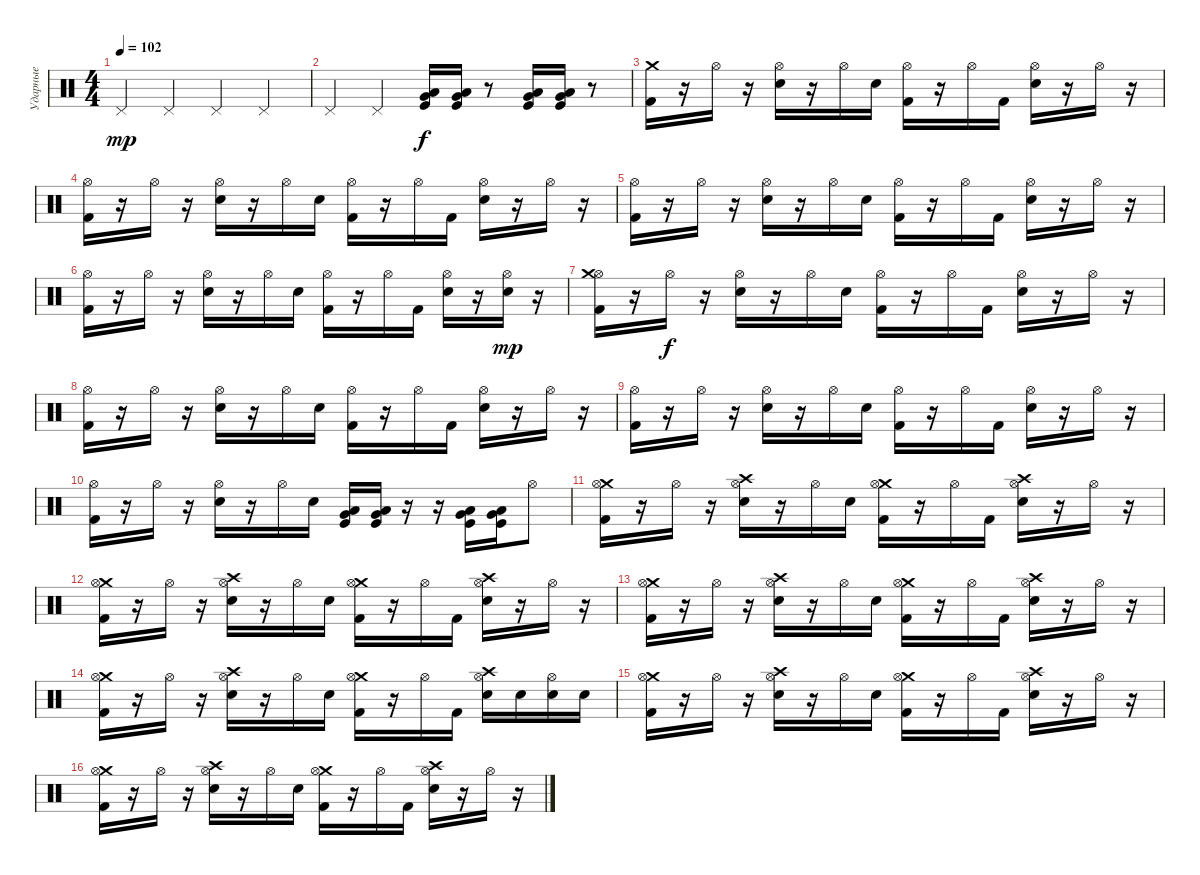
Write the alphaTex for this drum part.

\track ("Ударные" "Ударные") {instrument percussion}
\staff {score}
\articulation defaults
\ts (4 4)
\tempo 102
\clef neutral
\ks c "Pedal Hi-Hat (hit)".4{dy mp} "Pedal Hi-Hat (hit)".4 "Pedal Hi-Hat (hit)".4 "Pedal Hi-Hat (hit)".4
|
"Pedal Hi-Hat (hit)".4 "Pedal Hi-Hat (hit)".4 ("Low Floor Tom (hit)" "Very Low Tom (hit)" "Kick (hit)").16{dy f} ("Low Floor Tom (hit)" "Very Low Tom (hit)" "Kick (hit)").16 r.8 ("Low Floor Tom (hit)" "Very Low Tom (hit)" "Kick (hit)").16 ("Low Floor Tom (hit)" "Very Low Tom (hit)" "Kick (hit)").16 r.8 |
("Crash medium (hit)" "Kick (hit) 2").16 r.16 "Hi-Hat (open)".16 r.16 ("Hi-Hat (open)" "Electric Snare (hit)").16 r.16 "Hi-Hat (open)".16 "Electric Snare (hit)".16 ("Hi-Hat (open)" "Kick (hit) 2").16 r.16 "Hi-Hat (open)".16 "Kick (hit) 2".16 ("Hi-Hat (open)" "Electric Snare (hit)").16 r.16 "Hi-Hat (open)".16 r.16 |
("Hi-Hat (open)" "Kick (hit) 2").16 r.16 "Hi-Hat (open)".16 r.16 ("Hi-Hat (open)" "Electric Snare (hit)").16 r.16 "Hi-Hat (open)".16 "Electric Snare (hit)".16 ("Hi-Hat (open)" "Kick (hit) 2").16 r.16 "Hi-Hat (open)".16 "Kick (hit) 2".16 ("Hi-Hat (open)" "Electric Snare (hit)").16 r.16 "Hi-Hat (open)".16 r.16 |
("Hi-Hat (open)" "Kick (hit) 2").16 r.16 "Hi-Hat (open)".16 r.16 ("Hi-Hat (open)" "Electric Snare (hit)").16 r.16 "Hi-Hat (open)".16 "Electric Snare (hit)".16 ("Hi-Hat (open)" "Kick (hit) 2").16 r.16 "Hi-Hat (open)".16 "Kick (hit) 2".16 ("Hi-Hat (open)" "Electric Snare (hit)").16 r.16 "Hi-Hat (open)".16 r.16 |
("Hi-Hat (open)" "Kick (hit) 2").16 r.16 "Hi-Hat (open)".16 r.16 ("Hi-Hat (open)" "Electric Snare (hit)").16 r.16 "Hi-Hat (open)".16 "Electric Snare (hit)".16 ("Hi-Hat (open)" "Kick (hit) 2").16 r.16 "Hi-Hat (open)".16 "Kick (hit) 2".16 ("Hi-Hat (open)" "Electric Snare (hit)").16 r.16 ("Hi-Hat (open)" "Electric Snare (hit)").16{dy mp} r.16 |
("Hi-Hat (open)" "Crash medium (hit)" "Kick (hit) 2").16 r.16 "Hi-Hat (open)".16{dy f} r.16 ("Hi-Hat (open)" "Electric Snare (hit)").16 r.16 "Hi-Hat (open)".16 "Electric Snare (hit)".16 ("Hi-Hat (open)" "Kick (hit) 2").16 r.16 "Hi-Hat (open)".16 "Kick (hit) 2".16 ("Hi-Hat (open)" "Electric Snare (hit)").16 r.16 "Hi-Hat (open)".16 r.16 |
("Hi-Hat (open)" "Kick (hit) 2").16 r.16 "Hi-Hat (open)".16 r.16 ("Hi-Hat (open)" "Electric Snare (hit)").16 r.16 "Hi-Hat (open)".16 "Electric Snare (hit)".16 ("Hi-Hat (open)" "Kick (hit) 2").16 r.16 "Hi-Hat (open)".16 "Kick (hit) 2".16 ("Hi-Hat (open)" "Electric Snare (hit)").16 r.16 "Hi-Hat (open)".16 r.16 |
("Hi-Hat (open)" "Kick (hit) 2").16 r.16 "Hi-Hat (open)".16 r.16 ("Hi-Hat (open)" "Electric Snare (hit)").16 r.16 "Hi-Hat (open)".16 "Electric Snare (hit)".16 ("Hi-Hat (open)" "Kick (hit) 2").16 r.16 "Hi-Hat (open)".16 "Kick (hit) 2".16 ("Hi-Hat (open)" "Electric Snare (hit)").16 r.16 "Hi-Hat (open)".16 r.16 |
("Hi-Hat (open)" "Kick (hit) 2").16 r.16 "Hi-Hat (open)".16 r.16 ("Hi-Hat (open)" "Electric Snare (hit)").16 r.16 "Hi-Hat (open)".16 "Electric Snare (hit)".16 ("Very Low Tom (hit)" "Low Floor Tom (hit)" "Kick (hit)").16 ("Very Low Tom (hit)" "Low Floor Tom (hit)" "Kick (hit)").16 r.16 r.16 ("Very Low Tom (hit)" "Low Floor Tom (hit)" "Kick (hit)").16 ("Very Low Tom (hit)" "Low Floor Tom (hit)" "Kick (hit)").16 "Hi-Hat (open)".8 |
("Crash medium (hit)" "Hi-Hat (open)" "Kick (hit) 2").16 r.16 "Hi-Hat (open)".16 r.16 ("Crash high (hit)" "Hi-Hat (open)" "Electric Snare (hit)").16 r.16 "Hi-Hat (open)".16 "Electric Snare (hit)".16 ("Crash medium (hit)" "Hi-Hat (open)" "Kick (hit) 2").16 r.16 "Hi-Hat (open)".16 "Kick (hit) 2".16 ("Crash high (hit)" "Hi-Hat (open)" "Electric Snare (hit)").16 r.16 "Hi-Hat (open)".16 r.16 |
("Crash medium (hit)" "Hi-Hat (open)" "Kick (hit) 2").16 r.16 "Hi-Hat (open)".16 r.16 ("Crash high (hit)" "Hi-Hat (open)" "Electric Snare (hit)").16 r.16 "Hi-Hat (open)".16 "Electric Snare (hit)".16 ("Crash medium (hit)" "Hi-Hat (open)" "Kick (hit) 2").16 r.16 "Hi-Hat (open)".16 "Kick (hit) 2".16 ("Crash high (hit)" "Hi-Hat (open)" "Electric Snare (hit)").16 r.16 "Hi-Hat (open)".16 r.16 |
("Crash medium (hit)" "Hi-Hat (open)" "Kick (hit) 2").16 r.16 "Hi-Hat (open)".16 r.16 ("Crash high (hit)" "Hi-Hat (open)" "Electric Snare (hit)").16 r.16 "Hi-Hat (open)".16 "Electric Snare (hit)".16 ("Crash medium (hit)" "Hi-Hat (open)" "Kick (hit) 2").16 r.16 "Hi-Hat (open)".16 "Kick (hit) 2".16 ("Crash high (hit)" "Hi-Hat (open)" "Electric Snare (hit)").16 r.16 "Hi-Hat (open)".16 r.16 |
("Crash medium (hit)" "Hi-Hat (open)" "Kick (hit) 2").16 r.16 "Hi-Hat (open)".16 r.16 ("Crash high (hit)" "Hi-Hat (open)" "Electric Snare (hit)").16 r.16 "Hi-Hat (open)".16 "Electric Snare (hit)".16 ("Crash medium (hit)" "Hi-Hat (open)" "Kick (hit) 2").16 r.16 "Hi-Hat (open)".16 "Kick (hit) 2".16 ("Crash high (hit)" "Hi-Hat (open)" "Electric Snare (hit)").16 "Electric Snare (hit)".16 ("Hi-Hat (open)" "Electric Snare (hit)").16 "Electric Snare (hit)".16 |
("Crash medium (hit)" "Hi-Hat (open)" "Kick (hit) 2").16 r.16 "Hi-Hat (open)".16 r.16 ("Crash high (hit)" "Hi-Hat (open)" "Electric Snare (hit)").16 r.16 "Hi-Hat (open)".16 "Electric Snare (hit)".16 ("Crash medium (hit)" "Hi-Hat (open)" "Kick (hit) 2").16 r.16 "Hi-Hat (open)".16 "Kick (hit) 2".16 ("Crash high (hit)" "Hi-Hat (open)" "Electric Snare (hit)").16 r.16 "Hi-Hat (open)".16 r.16 |
("Crash medium (hit)" "Hi-Hat (open)" "Kick (hit) 2").16 r.16 "Hi-Hat (open)".16 r.16 ("Crash high (hit)" "Hi-Hat (open)" "Electric Snare (hit)").16 r.16 "Hi-Hat (open)".16 "Electric Snare (hit)".16 ("Crash medium (hit)" "Hi-Hat (open)" "Kick (hit) 2").16 r.16 "Hi-Hat (open)".16 "Kick (hit) 2".16 ("Crash high (hit)" "Hi-Hat (open)" "Electric Snare (hit)").16 r.16 "Hi-Hat (open)".16 r.16
